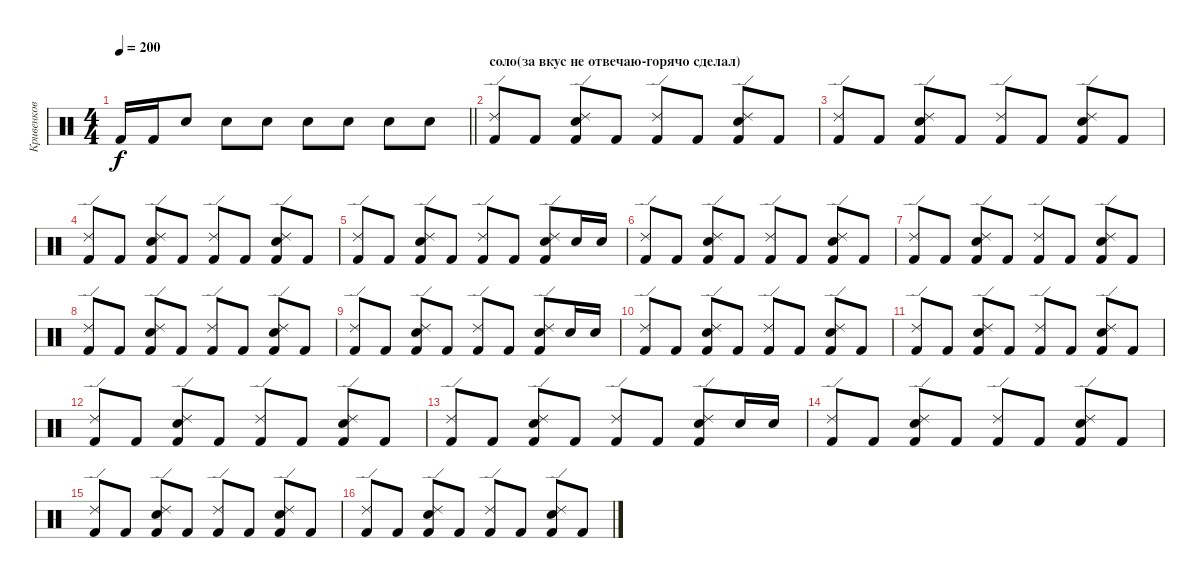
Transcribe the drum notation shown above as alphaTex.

\track ("Кривенков" "Кривенков") {instrument percussion}
\staff {score}
\articulation defaults
\ts (4 4)
\tempo 200
\clef neutral
\barLineRight lightlight
\ks c "Kick (hit) 2".16{dy f volume 10} "Kick (hit) 2".16 "Electric Snare (hit)".8 "Electric Snare (hit)".8 "Electric Snare (hit)".8 "Electric Snare (hit)".8 "Electric Snare (hit)".8 "Electric Snare (hit)".8 "Electric Snare (hit)".8
|
\section ("" "соло(за вкус не отвечаю-горячо сделал)")
("Ride (edge) 2" "Kick (hit) 2").8 "Kick (hit) 2".8 ("Ride (edge) 2" "Electric Snare (hit)" "Kick (hit) 2").8 "Kick (hit) 2".8 ("Ride (edge) 2" "Kick (hit) 2").8 "Kick (hit) 2".8 ("Ride (edge) 2" "Electric Snare (hit)" "Kick (hit) 2").8 "Kick (hit) 2".8 |
("Ride (edge) 2" "Kick (hit) 2").8 "Kick (hit) 2".8 ("Ride (edge) 2" "Electric Snare (hit)" "Kick (hit) 2").8 "Kick (hit) 2".8 ("Ride (edge) 2" "Kick (hit) 2").8 "Kick (hit) 2".8 ("Ride (edge) 2" "Electric Snare (hit)" "Kick (hit) 2").8 "Kick (hit) 2".8 |
("Ride (edge) 2" "Kick (hit) 2").8 "Kick (hit) 2".8 ("Ride (edge) 2" "Electric Snare (hit)" "Kick (hit) 2").8 "Kick (hit) 2".8 ("Ride (edge) 2" "Kick (hit) 2").8 "Kick (hit) 2".8 ("Ride (edge) 2" "Electric Snare (hit)" "Kick (hit) 2").8 "Kick (hit) 2".8 |
("Ride (edge) 2" "Kick (hit) 2").8 "Kick (hit) 2".8 ("Ride (edge) 2" "Electric Snare (hit)" "Kick (hit) 2").8 "Kick (hit) 2".8 ("Ride (edge) 2" "Kick (hit) 2").8 "Kick (hit) 2".8 ("Ride (edge) 2" "Electric Snare (hit)" "Kick (hit) 2").8 "Electric Snare (hit)".16 "Electric Snare (hit)".16 |
("Ride (edge) 2" "Kick (hit) 2").8 "Kick (hit) 2".8 ("Ride (edge) 2" "Electric Snare (hit)" "Kick (hit) 2").8 "Kick (hit) 2".8 ("Ride (edge) 2" "Kick (hit) 2").8 "Kick (hit) 2".8 ("Ride (edge) 2" "Electric Snare (hit)" "Kick (hit) 2").8 "Kick (hit) 2".8 |
("Ride (edge) 2" "Kick (hit) 2").8 "Kick (hit) 2".8 ("Ride (edge) 2" "Electric Snare (hit)" "Kick (hit) 2").8 "Kick (hit) 2".8 ("Ride (edge) 2" "Kick (hit) 2").8 "Kick (hit) 2".8 ("Ride (edge) 2" "Electric Snare (hit)" "Kick (hit) 2").8 "Kick (hit) 2".8 |
("Ride (edge) 2" "Kick (hit) 2").8 "Kick (hit) 2".8 ("Ride (edge) 2" "Electric Snare (hit)" "Kick (hit) 2").8 "Kick (hit) 2".8 ("Ride (edge) 2" "Kick (hit) 2").8 "Kick (hit) 2".8 ("Ride (edge) 2" "Electric Snare (hit)" "Kick (hit) 2").8 "Kick (hit) 2".8 |
("Ride (edge) 2" "Kick (hit) 2").8 "Kick (hit) 2".8 ("Ride (edge) 2" "Electric Snare (hit)" "Kick (hit) 2").8 "Kick (hit) 2".8 ("Ride (edge) 2" "Kick (hit) 2").8 "Kick (hit) 2".8 ("Ride (edge) 2" "Electric Snare (hit)" "Kick (hit) 2").8 "Electric Snare (hit)".16 "Electric Snare (hit)".16 |
("Ride (edge) 2" "Kick (hit) 2").8 "Kick (hit) 2".8 ("Ride (edge) 2" "Electric Snare (hit)" "Kick (hit) 2").8 "Kick (hit) 2".8 ("Ride (edge) 2" "Kick (hit) 2").8 "Kick (hit) 2".8 ("Ride (edge) 2" "Electric Snare (hit)" "Kick (hit) 2").8 "Kick (hit) 2".8 |
("Ride (edge) 2" "Kick (hit) 2").8 "Kick (hit) 2".8 ("Ride (edge) 2" "Electric Snare (hit)" "Kick (hit) 2").8 "Kick (hit) 2".8 ("Ride (edge) 2" "Kick (hit) 2").8 "Kick (hit) 2".8 ("Ride (edge) 2" "Electric Snare (hit)" "Kick (hit) 2").8 "Kick (hit) 2".8 |
("Ride (edge) 2" "Kick (hit) 2").8 "Kick (hit) 2".8 ("Ride (edge) 2" "Electric Snare (hit)" "Kick (hit) 2").8 "Kick (hit) 2".8 ("Ride (edge) 2" "Kick (hit) 2").8 "Kick (hit) 2".8 ("Ride (edge) 2" "Electric Snare (hit)" "Kick (hit) 2").8 "Kick (hit) 2".8 |
("Ride (edge) 2" "Kick (hit) 2").8 "Kick (hit) 2".8 ("Ride (edge) 2" "Electric Snare (hit)" "Kick (hit) 2").8 "Kick (hit) 2".8 ("Ride (edge) 2" "Kick (hit) 2").8 "Kick (hit) 2".8 ("Ride (edge) 2" "Electric Snare (hit)" "Kick (hit) 2").8 "Electric Snare (hit)".16 "Electric Snare (hit)".16 |
("Ride (edge) 2" "Kick (hit) 2").8 "Kick (hit) 2".8 ("Ride (edge) 2" "Electric Snare (hit)" "Kick (hit) 2").8 "Kick (hit) 2".8 ("Ride (edge) 2" "Kick (hit) 2").8 "Kick (hit) 2".8 ("Ride (edge) 2" "Electric Snare (hit)" "Kick (hit) 2").8 "Kick (hit) 2".8 |
("Ride (edge) 2" "Kick (hit) 2").8 "Kick (hit) 2".8 ("Ride (edge) 2" "Electric Snare (hit)" "Kick (hit) 2").8 "Kick (hit) 2".8 ("Ride (edge) 2" "Kick (hit) 2").8 "Kick (hit) 2".8 ("Ride (edge) 2" "Electric Snare (hit)" "Kick (hit) 2").8 "Kick (hit) 2".8 |
("Ride (edge) 2" "Kick (hit) 2").8 "Kick (hit) 2".8 ("Ride (edge) 2" "Electric Snare (hit)" "Kick (hit) 2").8 "Kick (hit) 2".8 ("Ride (edge) 2" "Kick (hit) 2").8 "Kick (hit) 2".8 ("Ride (edge) 2" "Electric Snare (hit)" "Kick (hit) 2").8 "Kick (hit) 2".8
